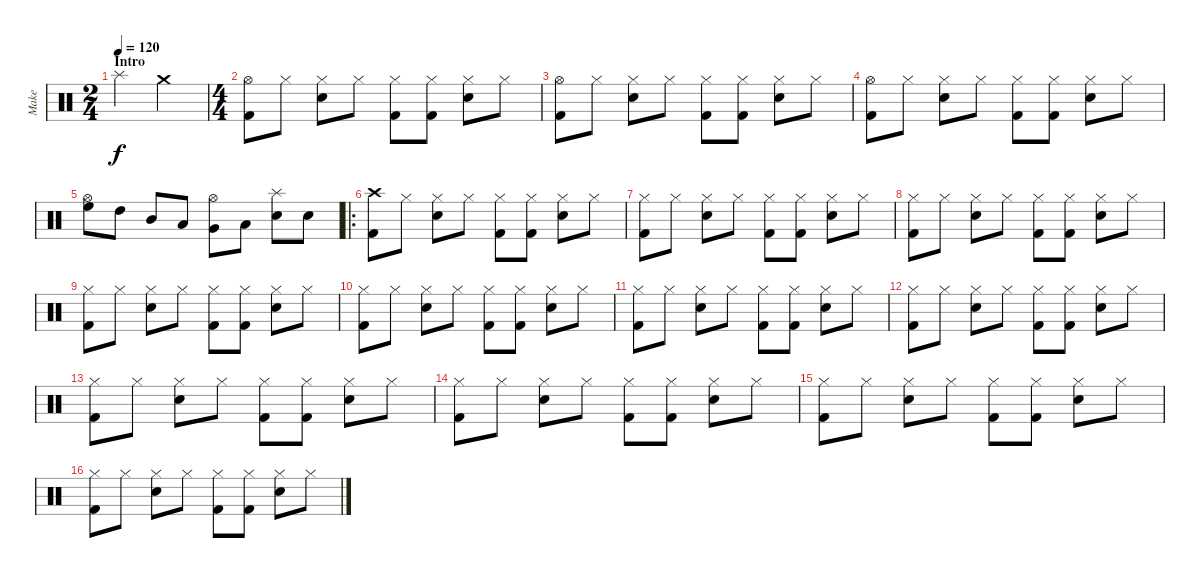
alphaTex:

\track ("Make" "Make") {instrument percussion}
\staff {score}
\articulation defaults
\ts (2 4)
\section ("" "Intro")
\tempo 120
\clef neutral
\ks c "Splash (hit)".4{dy f} "Crash medium (hit)".4
|
\ts (4 4)
("Hi-Hat (open)" "Kick (hit) 2").8 "Hi-Hat (closed)".8 ("Hi-Hat (closed)" "Electric Snare (hit)").8 "Hi-Hat (closed)".8 ("Hi-Hat (closed)" "Kick (hit) 2").8 ("Hi-Hat (closed)" "Kick (hit) 2").8 ("Hi-Hat (closed)" "Electric Snare (hit)").8 "Hi-Hat (closed)".8 |
("Hi-Hat (open)" "Kick (hit) 2").8 "Hi-Hat (closed)".8 ("Hi-Hat (closed)" "Electric Snare (hit)").8 "Hi-Hat (closed)".8 ("Hi-Hat (closed)" "Kick (hit) 2").8 ("Hi-Hat (closed)" "Kick (hit) 2").8 ("Hi-Hat (closed)" "Electric Snare (hit)").8 "Hi-Hat (closed)".8 |
("Hi-Hat (open)" "Kick (hit) 2").8 "Hi-Hat (closed)".8 ("Hi-Hat (closed)" "Electric Snare (hit)").8 "Hi-Hat (closed)".8 ("Hi-Hat (closed)" "Kick (hit) 2").8 ("Hi-Hat (closed)" "Kick (hit) 2").8 ("Hi-Hat (closed)" "Electric Snare (hit)").8 "Hi-Hat (closed)".8 |
("Hi-Hat (open)" "High Floor Tom (hit)").8 "High Tom (hit)".8 "Mid Tom (hit)".8 "Low Tom (hit)".8 ("Hi-Hat (open)" "Very Low Tom (hit)").8 "Low Floor Tom (hit)".8 ("Splash (hit)" "Electric Snare (hit)").8 "Electric Snare (hit)".8 |
\ro
("Crash high (hit)" "Kick (hit) 2").8 "Hi-Hat (closed)".8 ("Hi-Hat (closed)" "Electric Snare (hit)").8 "Hi-Hat (closed)".8 ("Hi-Hat (closed)" "Kick (hit) 2").8 ("Hi-Hat (closed)" "Kick (hit) 2").8 ("Hi-Hat (closed)" "Electric Snare (hit)").8 "Hi-Hat (closed)".8 |
("Hi-Hat (closed)" "Kick (hit) 2").8 "Hi-Hat (closed)".8 ("Hi-Hat (closed)" "Electric Snare (hit)").8 "Hi-Hat (closed)".8 ("Hi-Hat (closed)" "Kick (hit) 2").8 ("Hi-Hat (closed)" "Kick (hit) 2").8 ("Hi-Hat (closed)" "Electric Snare (hit)").8 "Hi-Hat (closed)".8 |
("Hi-Hat (closed)" "Kick (hit) 2").8 "Hi-Hat (closed)".8 ("Hi-Hat (closed)" "Electric Snare (hit)").8 "Hi-Hat (closed)".8 ("Hi-Hat (closed)" "Kick (hit) 2").8 ("Hi-Hat (closed)" "Kick (hit) 2").8 ("Hi-Hat (closed)" "Electric Snare (hit)").8 "Hi-Hat (closed)".8 |
("Hi-Hat (closed)" "Kick (hit) 2").8 "Hi-Hat (closed)".8 ("Hi-Hat (closed)" "Electric Snare (hit)").8 "Hi-Hat (closed)".8 ("Hi-Hat (closed)" "Kick (hit) 2").8 ("Hi-Hat (closed)" "Kick (hit) 2").8 ("Hi-Hat (closed)" "Electric Snare (hit)").8 "Hi-Hat (closed)".8 |
("Hi-Hat (closed)" "Kick (hit) 2").8 "Hi-Hat (closed)".8 ("Hi-Hat (closed)" "Electric Snare (hit)").8 "Hi-Hat (closed)".8 ("Hi-Hat (closed)" "Kick (hit) 2").8 ("Hi-Hat (closed)" "Kick (hit) 2").8 ("Hi-Hat (closed)" "Electric Snare (hit)").8 "Hi-Hat (closed)".8 |
("Hi-Hat (closed)" "Kick (hit) 2").8 "Hi-Hat (closed)".8 ("Hi-Hat (closed)" "Electric Snare (hit)").8 "Hi-Hat (closed)".8 ("Hi-Hat (closed)" "Kick (hit) 2").8 ("Hi-Hat (closed)" "Kick (hit) 2").8 ("Hi-Hat (closed)" "Electric Snare (hit)").8 "Hi-Hat (closed)".8 |
("Hi-Hat (closed)" "Kick (hit) 2").8 "Hi-Hat (closed)".8 ("Hi-Hat (closed)" "Electric Snare (hit)").8 "Hi-Hat (closed)".8 ("Hi-Hat (closed)" "Kick (hit) 2").8 ("Hi-Hat (closed)" "Kick (hit) 2").8 ("Hi-Hat (closed)" "Electric Snare (hit)").8 "Hi-Hat (closed)".8 |
("Hi-Hat (closed)" "Kick (hit) 2").8 "Hi-Hat (closed)".8 ("Hi-Hat (closed)" "Electric Snare (hit)").8 "Hi-Hat (closed)".8 ("Hi-Hat (closed)" "Kick (hit) 2").8 ("Hi-Hat (closed)" "Kick (hit) 2").8 ("Hi-Hat (closed)" "Electric Snare (hit)").8 "Hi-Hat (closed)".8 |
("Hi-Hat (closed)" "Kick (hit) 2").8 "Hi-Hat (closed)".8 ("Hi-Hat (closed)" "Electric Snare (hit)").8 "Hi-Hat (closed)".8 ("Hi-Hat (closed)" "Kick (hit) 2").8 ("Hi-Hat (closed)" "Kick (hit) 2").8 ("Hi-Hat (closed)" "Electric Snare (hit)").8 "Hi-Hat (closed)".8 |
("Hi-Hat (closed)" "Kick (hit) 2").8 "Hi-Hat (closed)".8 ("Hi-Hat (closed)" "Electric Snare (hit)").8 "Hi-Hat (closed)".8 ("Hi-Hat (closed)" "Kick (hit) 2").8 ("Hi-Hat (closed)" "Kick (hit) 2").8 ("Hi-Hat (closed)" "Electric Snare (hit)").8 "Hi-Hat (closed)".8 |
("Hi-Hat (closed)" "Kick (hit) 2").8 "Hi-Hat (closed)".8 ("Hi-Hat (closed)" "Electric Snare (hit)").8 "Hi-Hat (closed)".8 ("Hi-Hat (closed)" "Kick (hit) 2").8 ("Hi-Hat (closed)" "Kick (hit) 2").8 ("Hi-Hat (closed)" "Electric Snare (hit)").8 "Hi-Hat (closed)".8
